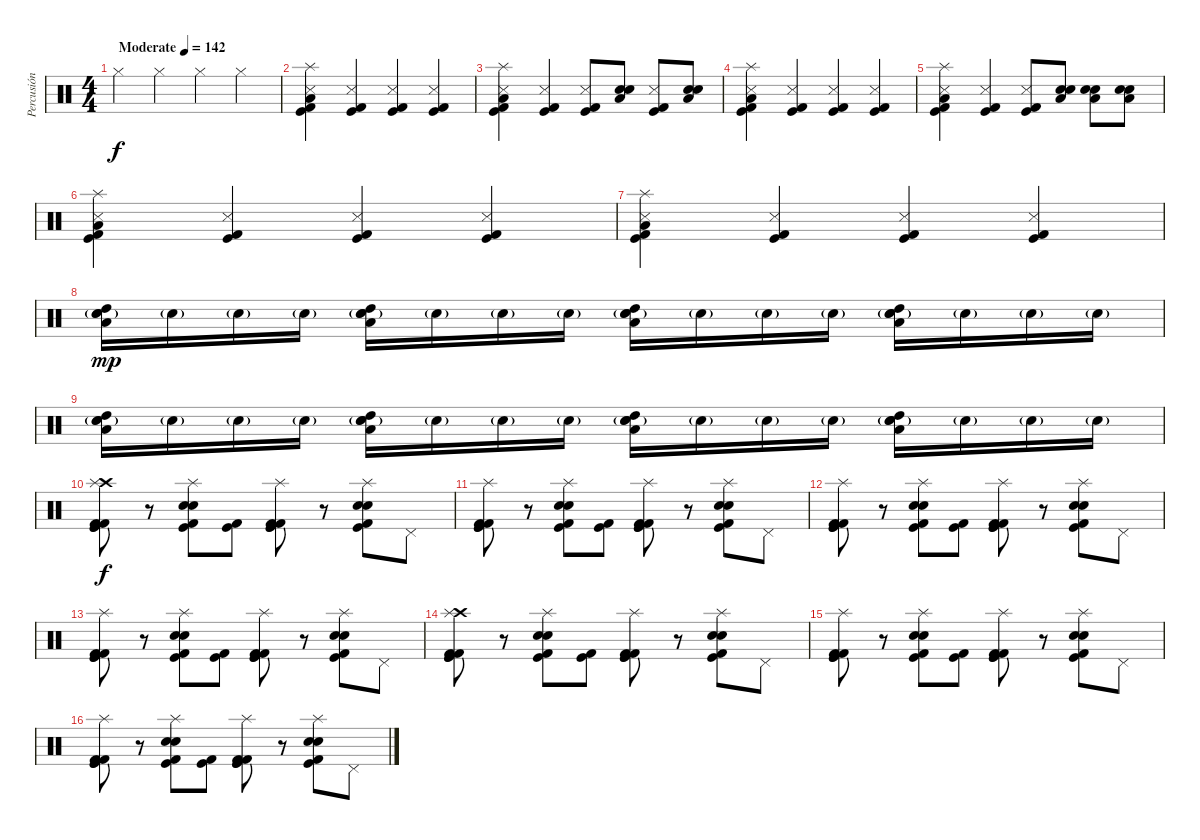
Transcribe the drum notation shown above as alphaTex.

\track ("Percusión" "Percusión") {instrument percussion}
\staff {score}
\articulation defaults
\ts (4 4)
\tempo (142 "Moderate")
\clef neutral
\ks c "Hi-Hat (closed)".4{dy f} "Hi-Hat (closed)".4 "Hi-Hat (closed)".4 "Hi-Hat (closed)".4
|
("Splash (hit)" "Low Tom (hit)" "Kick (hit) 2" "Kick (hit)" "Snare (side stick) 3").4 ("Kick (hit) 2" "Kick (hit)" "Snare (side stick) 3").4 ("Kick (hit) 2" "Kick (hit)" "Snare (side stick) 3").4 ("Kick (hit) 2" "Kick (hit)" "Snare (side stick) 3").4 |
("Splash (hit)" "Low Tom (hit)" "Kick (hit) 2" "Kick (hit)" "Snare (side stick) 3").4 ("Kick (hit) 2" "Kick (hit)" "Snare (side stick) 3").4 ("Kick (hit) 2" "Kick (hit)" "Snare (side stick) 3").8 ("Low Tom (hit)" "Electric Snare (hit)" "Snare (hit) 2").8 ("Kick (hit) 2" "Kick (hit)" "Snare (side stick) 3").8 ("Low Tom (hit)" "Electric Snare (hit)" "Snare (hit) 2").8 |
("Splash (hit)" "Low Tom (hit)" "Kick (hit) 2" "Kick (hit)" "Snare (side stick) 3").4 ("Kick (hit) 2" "Kick (hit)" "Snare (side stick) 3").4 ("Kick (hit) 2" "Kick (hit)" "Snare (side stick) 3").4 ("Kick (hit) 2" "Kick (hit)" "Snare (side stick) 3").4 |
("Splash (hit)" "Low Tom (hit)" "Kick (hit) 2" "Kick (hit)" "Snare (side stick) 3").4 ("Kick (hit) 2" "Kick (hit)" "Snare (side stick) 3").4 ("Kick (hit) 2" "Kick (hit)" "Snare (side stick) 3").8 ("Low Tom (hit)" "Electric Snare (hit)" "Snare (hit) 2").8 ("Low Tom (hit)" "Electric Snare (hit)" "Snare (hit) 2").8 ("Low Tom (hit)" "Electric Snare (hit)" "Snare (hit) 2").8 |
("Splash (hit)" "Low Tom (hit)" "Kick (hit) 2" "Kick (hit)" "Snare (side stick) 3").4 ("Kick (hit) 2" "Kick (hit)" "Snare (side stick) 3").4 ("Kick (hit) 2" "Kick (hit)" "Snare (side stick) 3").4 ("Kick (hit) 2" "Kick (hit)" "Snare (side stick) 3").4 |
("Splash (hit)" "Low Tom (hit)" "Kick (hit) 2" "Kick (hit)" "Snare (side stick) 3").4 ("Kick (hit) 2" "Kick (hit)" "Snare (side stick) 3").4 ("Kick (hit) 2" "Kick (hit)" "Snare (side stick) 3").4 ("Kick (hit) 2" "Kick (hit)" "Snare (side stick) 3").4 |
("Low Tom (hit)" "Snare (hit) 2" "High Tom (hit)" "Electric Snare (hit)"{g}).16{dy mp} "Electric Snare (hit)"{g}.16 "Electric Snare (hit)"{g}.16 "Electric Snare (hit)"{g}.16 ("Low Tom (hit)" "Snare (hit) 2" "High Tom (hit)" "Electric Snare (hit)"{g}).16 "Electric Snare (hit)"{g}.16 "Electric Snare (hit)"{g}.16 "Electric Snare (hit)"{g}.16 ("Low Tom (hit)" "Snare (hit) 2" "High Tom (hit)" "Electric Snare (hit)"{g}).16 "Electric Snare (hit)"{g}.16 "Electric Snare (hit)"{g}.16 "Electric Snare (hit)"{g}.16 ("Low Tom (hit)" "Snare (hit) 2" "High Tom (hit)" "Electric Snare (hit)"{g}).16 "Electric Snare (hit)"{g}.16 "Electric Snare (hit)"{g}.16 "Electric Snare (hit)"{g}.16 |
("Low Tom (hit)" "Snare (hit) 2" "High Tom (hit)" "Electric Snare (hit)"{g}).16 "Electric Snare (hit)"{g}.16 "Electric Snare (hit)"{g}.16 "Electric Snare (hit)"{g}.16 ("Low Tom (hit)" "Snare (hit) 2" "High Tom (hit)" "Electric Snare (hit)"{g}).16 "Electric Snare (hit)"{g}.16 "Electric Snare (hit)"{g}.16 "Electric Snare (hit)"{g}.16 ("Low Tom (hit)" "Snare (hit) 2" "High Tom (hit)" "Electric Snare (hit)"{g}).16 "Electric Snare (hit)"{g}.16 "Electric Snare (hit)"{g}.16 "Electric Snare (hit)"{g}.16 ("Low Tom (hit)" "Snare (hit) 2" "High Tom (hit)" "Electric Snare (hit)"{g}).16 "Electric Snare (hit)"{g}.16 "Electric Snare (hit)"{g}.16 "Electric Snare (hit)"{g}.16 |
("Kick (hit) 2" "Kick (hit)" "Crash high (hit)" "Splash (hit)" "Kick (hit) 2" "Kick (hit)").8{dy f} r.8 ("Snare (hit) 2" "Splash (hit)" "Electric Snare (hit)" "Kick (hit)" "Kick (hit) 2").8 ("Kick (hit) 2" "Kick (hit)").8 ("Kick (hit) 2" "Kick (hit)" "Splash (hit)" "Kick (hit) 2" "Kick (hit)").8 r.8 ("Snare (hit) 2" "Splash (hit)" "Electric Snare (hit)" "Kick (hit)" "Kick (hit) 2").8 "Pedal Hi-Hat (hit)".8 |
("Kick (hit) 2" "Kick (hit)" "Splash (hit)" "Kick (hit) 2" "Kick (hit)").8 r.8 ("Snare (hit) 2" "Splash (hit)" "Electric Snare (hit)" "Kick (hit)" "Kick (hit) 2").8 ("Kick (hit) 2" "Kick (hit)").8 ("Kick (hit) 2" "Kick (hit)" "Splash (hit)" "Kick (hit) 2" "Kick (hit)").8 r.8 ("Snare (hit) 2" "Splash (hit)" "Electric Snare (hit)" "Kick (hit)" "Kick (hit) 2").8 "Pedal Hi-Hat (hit)".8 |
("Kick (hit) 2" "Kick (hit)" "Splash (hit)" "Kick (hit) 2" "Kick (hit)").8 r.8 ("Snare (hit) 2" "Splash (hit)" "Electric Snare (hit)" "Kick (hit)" "Kick (hit) 2").8 ("Kick (hit) 2" "Kick (hit)").8 ("Kick (hit) 2" "Kick (hit)" "Splash (hit)" "Kick (hit) 2" "Kick (hit)").8 r.8 ("Snare (hit) 2" "Splash (hit)" "Electric Snare (hit)" "Kick (hit)" "Kick (hit) 2").8 "Pedal Hi-Hat (hit)".8 |
("Kick (hit) 2" "Kick (hit)" "Splash (hit)" "Kick (hit) 2" "Kick (hit)").8 r.8 ("Snare (hit) 2" "Splash (hit)" "Electric Snare (hit)" "Kick (hit)" "Kick (hit) 2").8 ("Kick (hit) 2" "Kick (hit)").8 ("Kick (hit) 2" "Kick (hit)" "Splash (hit)" "Kick (hit) 2" "Kick (hit)").8 r.8 ("Snare (hit) 2" "Splash (hit)" "Electric Snare (hit)" "Kick (hit)" "Kick (hit) 2").8 "Pedal Hi-Hat (hit)".8 |
("Kick (hit) 2" "Kick (hit)" "Crash high (hit)" "Splash (hit)" "Kick (hit) 2" "Kick (hit)").8 r.8 ("Snare (hit) 2" "Splash (hit)" "Electric Snare (hit)" "Kick (hit)" "Kick (hit) 2").8 ("Kick (hit) 2" "Kick (hit)").8 ("Kick (hit) 2" "Kick (hit)" "Splash (hit)" "Kick (hit) 2" "Kick (hit)").8 r.8 ("Snare (hit) 2" "Splash (hit)" "Electric Snare (hit)" "Kick (hit)" "Kick (hit) 2").8 "Pedal Hi-Hat (hit)".8 |
("Kick (hit) 2" "Kick (hit)" "Splash (hit)" "Kick (hit) 2" "Kick (hit)").8 r.8 ("Snare (hit) 2" "Splash (hit)" "Electric Snare (hit)" "Kick (hit)" "Kick (hit) 2").8 ("Kick (hit) 2" "Kick (hit)").8 ("Kick (hit) 2" "Kick (hit)" "Splash (hit)" "Kick (hit) 2" "Kick (hit)").8 r.8 ("Snare (hit) 2" "Splash (hit)" "Electric Snare (hit)" "Kick (hit)" "Kick (hit) 2").8 "Pedal Hi-Hat (hit)".8 |
("Kick (hit) 2" "Kick (hit)" "Splash (hit)" "Kick (hit) 2" "Kick (hit)").8 r.8 ("Snare (hit) 2" "Splash (hit)" "Electric Snare (hit)" "Kick (hit)" "Kick (hit) 2").8 ("Kick (hit) 2" "Kick (hit)").8 ("Kick (hit) 2" "Kick (hit)" "Splash (hit)" "Kick (hit) 2" "Kick (hit)").8 r.8 ("Snare (hit) 2" "Splash (hit)" "Electric Snare (hit)" "Kick (hit)" "Kick (hit) 2").8 "Pedal Hi-Hat (hit)".8
